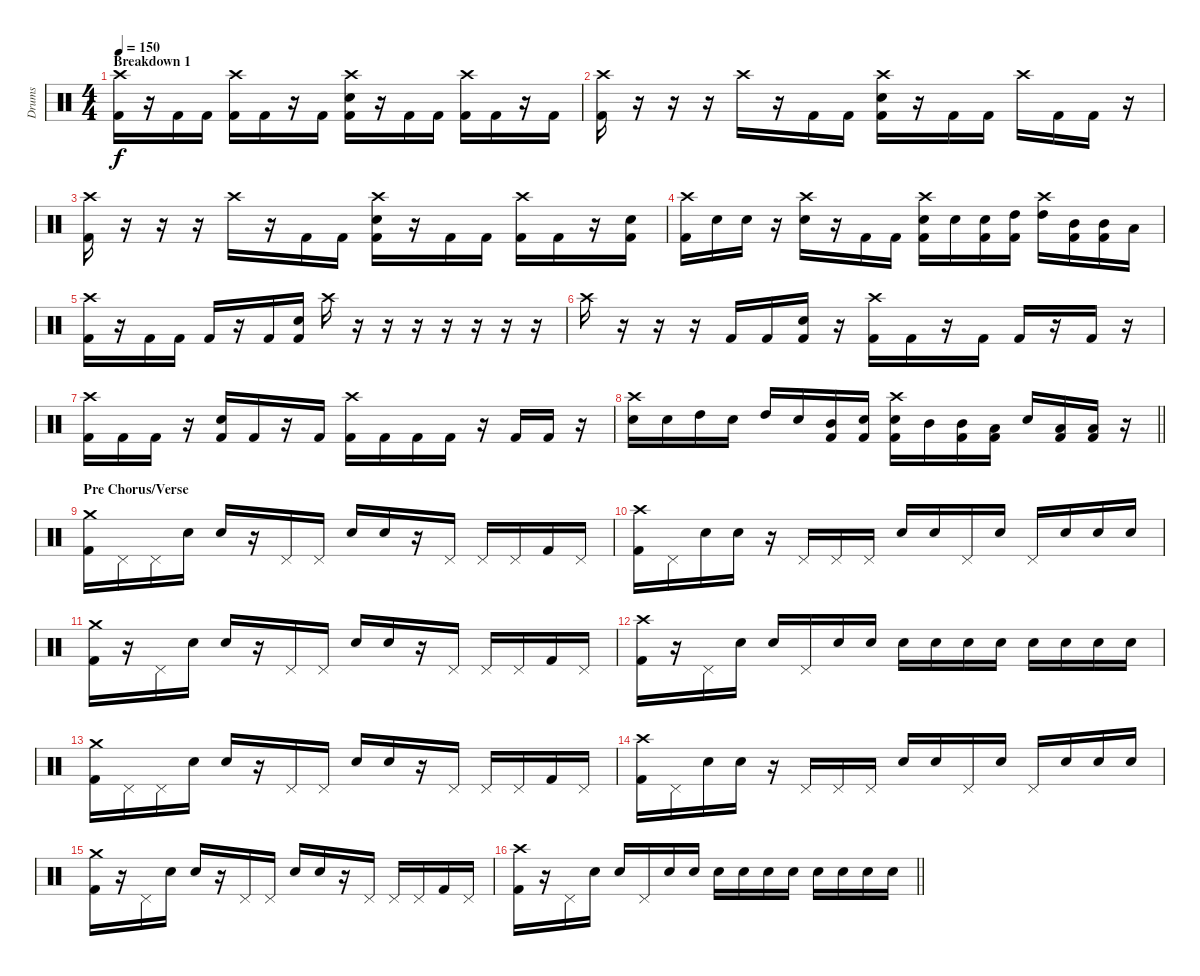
\track ("Drums" "Drums") {instrument percussion}
\staff {score}
\articulation defaults
\ts (4 4)
\section ("" "Breakdown 1")
\tempo 150
\clef neutral
\ks c
("Crash high (hit)" "Kick (hit) 2").16{dy f} r.16 "Kick (hit) 2".16 "Kick (hit) 2".16 ("Crash high (hit)" "Kick (hit) 2").16 "Kick (hit) 2".16 r.16 "Kick (hit) 2".16 ("Crash high (hit)" "Snare (hit) 2" "Kick (hit) 2").16 r.16 "Kick (hit) 2".16 "Kick (hit) 2".16 ("Crash high (hit)" "Kick (hit) 2").16 "Kick (hit) 2".16 r.16 "Kick (hit) 2".16 |
("Crash high (hit)" "Kick (hit) 2").16 r.16 r.16 r.16 "Crash high (hit)".16 r.16 "Kick (hit) 2".16 "Kick (hit) 2".16 ("Crash high (hit)" "Snare (hit) 2" "Kick (hit) 2").16 r.16 "Kick (hit) 2".16 "Kick (hit) 2".16 "Crash high (hit)".16 "Kick (hit) 2".16 "Kick (hit) 2".16 r.16 |
("Crash high (hit)" "Kick (hit) 2").16 r.16 r.16 r.16 "Crash high (hit)".16 r.16 "Kick (hit) 2".16 "Kick (hit) 2".16 ("Crash high (hit)" "Snare (hit) 2" "Kick (hit) 2").16 r.16 "Kick (hit) 2".16 "Kick (hit) 2".16 ("Crash high (hit)" "Kick (hit) 2").16 "Kick (hit) 2".16 r.16 ("Snare (hit) 2" "Kick (hit) 2").16 |
("Crash high (hit)" "Kick (hit) 2").16 "Snare (hit) 2".16 "Snare (hit) 2".16 r.16 ("Crash high (hit)" "Snare (hit) 2").16 r.16 "Kick (hit) 2".16 "Kick (hit) 2".16 ("Crash high (hit)" "Snare (hit) 2" "Kick (hit) 2").16 "Snare (hit) 2".16 ("Snare (hit) 2" "Kick (hit) 2").16 ("High Tom (hit)" "Kick (hit) 2").16 ("Crash high (hit)" "High Tom (hit)").16 ("Mid Tom (hit)" "Kick (hit) 2").16 ("Mid Tom (hit)" "Kick (hit) 2").16 "Low Tom (hit)".16 |
("Crash high (hit)" "Kick (hit) 2").16 r.16 "Kick (hit) 2".16 "Kick (hit) 2".16 "Kick (hit) 2".16 r.16 "Kick (hit) 2".16 ("Snare (hit) 2" "Kick (hit) 2").16 "Crash high (hit)".16 r.16 r.16 r.16 r.16 r.16 r.16 r.16 |
"Crash high (hit)".16 r.16 r.16 r.16 "Kick (hit) 2".16 "Kick (hit) 2".16 ("Snare (hit) 2" "Kick (hit) 2").16 r.16 ("Crash high (hit)" "Kick (hit) 2").16 "Kick (hit) 2".16 r.16 "Kick (hit) 2".16 "Kick (hit) 2".16 r.16 "Kick (hit) 2".16 r.16 |
("Crash high (hit)" "Kick (hit) 2").16 "Kick (hit) 2".16 "Kick (hit) 2".16 r.16 ("Snare (hit) 2" "Kick (hit) 2").16 "Kick (hit) 2".16 r.16 "Kick (hit) 2".16 ("Crash high (hit)" "Kick (hit) 2").16 "Kick (hit) 2".16 "Kick (hit) 2".16 "Kick (hit) 2".16 r.16 "Kick (hit) 2".16 "Kick (hit) 2".16 r.16 |
\barLineRight lightlight
("Crash high (hit)" "Snare (hit) 2").16 "Snare (hit) 2".16 "High Tom (hit)".16 "Snare (hit) 2".16 "High Tom (hit)".16 "Snare (hit) 2".16 ("Mid Tom (hit)" "Kick (hit) 2").16 ("Snare (hit) 2" "Kick (hit) 2").16 ("Crash high (hit)" "Snare (hit) 2" "Kick (hit) 2").16 "Mid Tom (hit)".16 ("Mid Tom (hit)" "Kick (hit) 2").16 ("Low Tom (hit)" "Kick (hit) 2").16 "Snare (hit) 2".16 ("Low Tom (hit)" "Kick (hit) 2").16 ("Low Tom (hit)" "Kick (hit) 2").16 r.16 |
\section ("" "Pre Chorus/Verse")
("Crash medium (hit)" "Kick (hit) 2").16 "Pedal Hi-Hat (hit)".16 "Pedal Hi-Hat (hit)".16 "Snare (hit) 2".16 "Snare (hit) 2".16 r.16 "Pedal Hi-Hat (hit)".16 "Pedal Hi-Hat (hit)".16 "Snare (hit) 2".16 "Snare (hit) 2".16 r.16 "Pedal Hi-Hat (hit)".16 "Pedal Hi-Hat (hit)".16 "Pedal Hi-Hat (hit)".16 "Kick (hit) 2".16 "Pedal Hi-Hat (hit)".16 |
("Crash high (hit)" "Kick (hit) 2").16 "Pedal Hi-Hat (hit)".16 "Snare (hit) 2".16 "Snare (hit) 2".16 r.16 "Pedal Hi-Hat (hit)".16 "Pedal Hi-Hat (hit)".16 "Pedal Hi-Hat (hit)".16 "Snare (hit) 2".16 "Snare (hit) 2".16 "Pedal Hi-Hat (hit)".16 "Snare (hit) 2".16 "Pedal Hi-Hat (hit)".16 "Snare (hit) 2".16 "Snare (hit) 2".16 "Snare (hit) 2".16 |
("Crash medium (hit)" "Kick (hit) 2").16 r.16 "Pedal Hi-Hat (hit)".16 "Snare (hit) 2".16 "Snare (hit) 2".16 r.16 "Pedal Hi-Hat (hit)".16 "Pedal Hi-Hat (hit)".16 "Snare (hit) 2".16 "Snare (hit) 2".16 r.16 "Pedal Hi-Hat (hit)".16 "Pedal Hi-Hat (hit)".16 "Pedal Hi-Hat (hit)".16 "Kick (hit) 2".16 "Pedal Hi-Hat (hit)".16 |
("Crash high (hit)" "Kick (hit) 2").16 r.16 "Pedal Hi-Hat (hit)".16 "Snare (hit) 2".16 "Snare (hit) 2".16 "Pedal Hi-Hat (hit)".16 "Snare (hit) 2".16 "Snare (hit) 2".16 "Snare (hit) 2".16 "Snare (hit) 2".16 "Snare (hit) 2".16 "Snare (hit) 2".16 "Snare (hit) 2".16 "Snare (hit) 2".16 "Snare (hit) 2".16 "Snare (hit) 2".16 |
("Crash medium (hit)" "Kick (hit) 2").16 "Pedal Hi-Hat (hit)".16 "Pedal Hi-Hat (hit)".16 "Snare (hit) 2".16 "Snare (hit) 2".16 r.16 "Pedal Hi-Hat (hit)".16 "Pedal Hi-Hat (hit)".16 "Snare (hit) 2".16 "Snare (hit) 2".16 r.16 "Pedal Hi-Hat (hit)".16 "Pedal Hi-Hat (hit)".16 "Pedal Hi-Hat (hit)".16 "Kick (hit) 2".16 "Pedal Hi-Hat (hit)".16 |
("Crash high (hit)" "Kick (hit) 2").16 "Pedal Hi-Hat (hit)".16 "Snare (hit) 2".16 "Snare (hit) 2".16 r.16 "Pedal Hi-Hat (hit)".16 "Pedal Hi-Hat (hit)".16 "Pedal Hi-Hat (hit)".16 "Snare (hit) 2".16 "Snare (hit) 2".16 "Pedal Hi-Hat (hit)".16 "Snare (hit) 2".16 "Pedal Hi-Hat (hit)".16 "Snare (hit) 2".16 "Snare (hit) 2".16 "Snare (hit) 2".16 |
("Crash medium (hit)" "Kick (hit) 2").16 r.16 "Pedal Hi-Hat (hit)".16 "Snare (hit) 2".16 "Snare (hit) 2".16 r.16 "Pedal Hi-Hat (hit)".16 "Pedal Hi-Hat (hit)".16 "Snare (hit) 2".16 "Snare (hit) 2".16 r.16 "Pedal Hi-Hat (hit)".16 "Pedal Hi-Hat (hit)".16 "Pedal Hi-Hat (hit)".16 "Kick (hit) 2".16 "Pedal Hi-Hat (hit)".16 |
\barLineRight lightlight
("Crash high (hit)" "Kick (hit) 2").16 r.16 "Pedal Hi-Hat (hit)".16 "Snare (hit) 2".16 "Snare (hit) 2".16 "Pedal Hi-Hat (hit)".16 "Snare (hit) 2".16 "Snare (hit) 2".16 "Snare (hit) 2".16 "Snare (hit) 2".16 "Snare (hit) 2".16 "Snare (hit) 2".16 "Snare (hit) 2".16 "Snare (hit) 2".16 "Snare (hit) 2".16 "Snare (hit) 2".16
